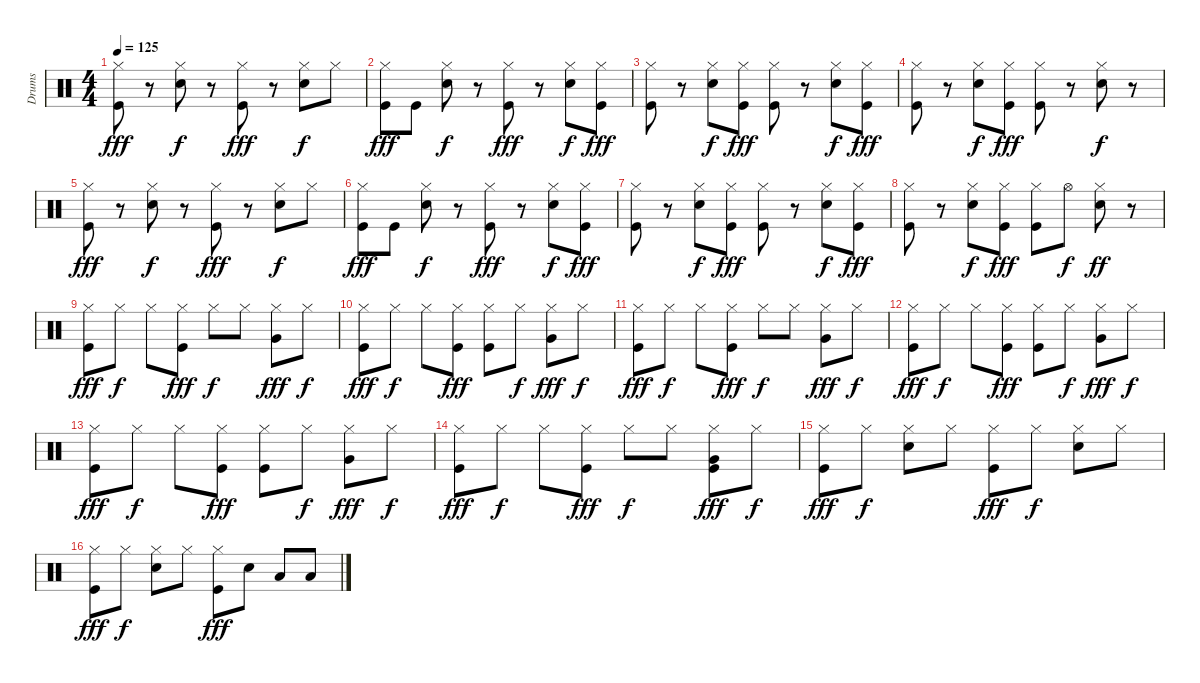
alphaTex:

\track ("Drums" "Drums") {instrument percussion}
\staff {score}
\articulation defaults
\ts (4 4)
\tempo 125
\clef neutral
\ks c
("Hi-Hat (closed)" "Kick (hit)").8{dy fff} r.8 ("Hi-Hat (closed)" "Snare (hit) 2").8{dy f} r.8 ("Hi-Hat (closed)" "Kick (hit)").8{dy fff} r.8 ("Hi-Hat (closed)" "Snare (hit) 2").8{dy f} "Hi-Hat (closed)".8 |
("Hi-Hat (closed)" "Kick (hit)").8{dy fff} "Kick (hit)".8 ("Hi-Hat (closed)" "Snare (hit) 2").8{dy f} r.8 ("Hi-Hat (closed)" "Kick (hit)").8{dy fff} r.8 ("Hi-Hat (closed)" "Snare (hit) 2").8{dy f} ("Hi-Hat (closed)" "Kick (hit)").8{dy fff} |
("Hi-Hat (closed)" "Kick (hit)").8 r.8 ("Hi-Hat (closed)" "Snare (hit) 2").8{dy f} ("Hi-Hat (closed)" "Kick (hit)").8{dy fff} ("Hi-Hat (closed)" "Kick (hit)").8 r.8 ("Hi-Hat (closed)" "Snare (hit) 2").8{dy f} ("Hi-Hat (closed)" "Kick (hit)").8{dy fff} |
("Hi-Hat (closed)" "Kick (hit)").8 r.8 ("Hi-Hat (closed)" "Snare (hit) 2").8{dy f} ("Hi-Hat (closed)" "Kick (hit)").8{dy fff} ("Hi-Hat (closed)" "Kick (hit)").8 r.8 ("Hi-Hat (closed)" "Snare (hit) 2").8{dy f} r.8 |
("Hi-Hat (closed)" "Kick (hit)").8{dy fff} r.8 ("Hi-Hat (closed)" "Snare (hit) 2").8{dy f} r.8 ("Hi-Hat (closed)" "Kick (hit)").8{dy fff} r.8 ("Hi-Hat (closed)" "Snare (hit) 2").8{dy f} "Hi-Hat (closed)".8 |
("Hi-Hat (closed)" "Kick (hit)").8{dy fff} "Kick (hit)".8 ("Hi-Hat (closed)" "Snare (hit) 2").8{dy f} r.8 ("Hi-Hat (closed)" "Kick (hit)").8{dy fff} r.8 ("Hi-Hat (closed)" "Snare (hit) 2").8{dy f} ("Hi-Hat (closed)" "Kick (hit)").8{dy fff} |
("Hi-Hat (closed)" "Kick (hit)").8 r.8 ("Hi-Hat (closed)" "Snare (hit) 2").8{dy f} ("Hi-Hat (closed)" "Kick (hit)").8{dy fff} ("Hi-Hat (closed)" "Kick (hit)").8 r.8 ("Hi-Hat (closed)" "Snare (hit) 2").8{dy f} ("Hi-Hat (closed)" "Kick (hit)").8{dy fff} |
("Hi-Hat (closed)" "Kick (hit)").8 r.8 ("Hi-Hat (closed)" "Snare (hit) 2").8{dy f} ("Hi-Hat (closed)" "Kick (hit)").8{dy fff} ("Hi-Hat (closed)" "Kick (hit)").8 "Hi-Hat (open)".8{dy f} ("Hi-Hat (closed)" "Snare (hit) 2").8{dy ff} r.8 |
("Hi-Hat (closed)" "Kick (hit)").8{dy fff} "Hi-Hat (closed)".8{dy f} "Hi-Hat (closed)".8 ("Hi-Hat (closed)" "Kick (hit)").8{dy fff} "Hi-Hat (closed)".8{dy f} "Hi-Hat (closed)".8 ("Hi-Hat (closed)" "Very Low Tom (hit)").8{dy fff} "Hi-Hat (closed)".8{dy f} |
("Hi-Hat (closed)" "Kick (hit)").8{dy fff} "Hi-Hat (closed)".8{dy f} "Hi-Hat (closed)".8 ("Hi-Hat (closed)" "Kick (hit)").8{dy fff} ("Hi-Hat (closed)" "Kick (hit)").8 "Hi-Hat (closed)".8{dy f} ("Hi-Hat (closed)" "Very Low Tom (hit)").8{dy fff} "Hi-Hat (closed)".8{dy f} |
("Hi-Hat (closed)" "Kick (hit)").8{dy fff} "Hi-Hat (closed)".8{dy f} "Hi-Hat (closed)".8 ("Hi-Hat (closed)" "Kick (hit)").8{dy fff} "Hi-Hat (closed)".8{dy f} "Hi-Hat (closed)".8 ("Hi-Hat (closed)" "Very Low Tom (hit)").8{dy fff} "Hi-Hat (closed)".8{dy f} |
("Hi-Hat (closed)" "Kick (hit)").8{dy fff} "Hi-Hat (closed)".8{dy f} "Hi-Hat (closed)".8 ("Hi-Hat (closed)" "Kick (hit)").8{dy fff} ("Hi-Hat (closed)" "Kick (hit)").8 "Hi-Hat (closed)".8{dy f} ("Hi-Hat (closed)" "Very Low Tom (hit)").8{dy fff} "Hi-Hat (closed)".8{dy f} |
("Hi-Hat (closed)" "Kick (hit)").8{dy fff} "Hi-Hat (closed)".8{dy f} "Hi-Hat (closed)".8 ("Hi-Hat (closed)" "Kick (hit)").8{dy fff} ("Hi-Hat (closed)" "Kick (hit)").8 "Hi-Hat (closed)".8{dy f} ("Hi-Hat (closed)" "Very Low Tom (hit)").8{dy fff} "Hi-Hat (closed)".8{dy f} |
("Hi-Hat (closed)" "Kick (hit)").8{dy fff} "Hi-Hat (closed)".8{dy f} "Hi-Hat (closed)".8 ("Hi-Hat (closed)" "Kick (hit)").8{dy fff} "Hi-Hat (closed)".8{dy f} "Hi-Hat (closed)".8 ("Hi-Hat (closed)" "Very Low Tom (hit)" "Kick (hit)").8{dy fff} "Hi-Hat (closed)".8{dy f} |
("Hi-Hat (closed)" "Kick (hit)").8{dy fff} "Hi-Hat (closed)".8{dy f} ("Hi-Hat (closed)" "Snare (hit) 2").8 "Hi-Hat (closed)".8 ("Hi-Hat (closed)" "Kick (hit)").8{dy fff} "Hi-Hat (closed)".8{dy f} ("Hi-Hat (closed)" "Snare (hit) 2").8 "Hi-Hat (closed)".8 |
("Hi-Hat (closed)" "Kick (hit)").8{dy fff} "Hi-Hat (closed)".8{dy f} ("Hi-Hat (closed)" "Snare (hit) 2").8 "Hi-Hat (closed)".8 ("Hi-Hat (closed)" "Kick (hit)").8{dy fff} "Electric Snare (hit)".8 "Low Tom (hit)".8 "Low Floor Tom (hit)".8
